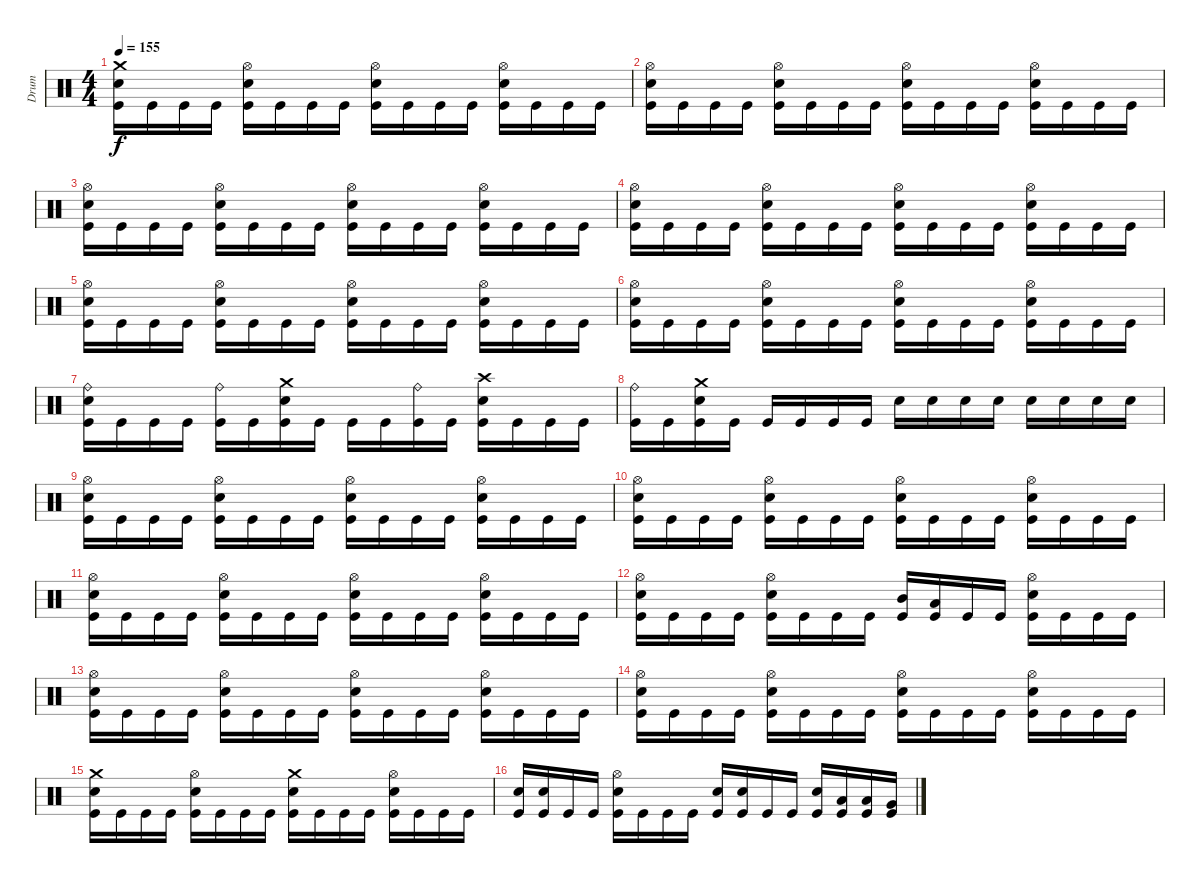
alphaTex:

\track ("Drum" "Drum") {instrument percussion}
\staff {score}
\articulation defaults
\ts (4 4)
\tempo 155
\clef neutral
\ks c
("Kick (hit)" "Electric Snare (hit)" "Crash medium (hit)").16{dy f} "Kick (hit)".16 "Kick (hit)".16 "Kick (hit)".16 ("Kick (hit)" "Electric Snare (hit)" "Hi-Hat (open)").16 "Kick (hit)".16 "Kick (hit)".16 "Kick (hit)".16 ("Kick (hit)" "Electric Snare (hit)" "Hi-Hat (open)").16 "Kick (hit)".16 "Kick (hit)".16 "Kick (hit)".16 ("Kick (hit)" "Electric Snare (hit)" "Hi-Hat (open)").16 "Kick (hit)".16 "Kick (hit)".16 "Kick (hit)".16 |
("Kick (hit)" "Electric Snare (hit)" "Hi-Hat (open)").16 "Kick (hit)".16 "Kick (hit)".16 "Kick (hit)".16 ("Kick (hit)" "Electric Snare (hit)" "Hi-Hat (open)").16 "Kick (hit)".16 "Kick (hit)".16 "Kick (hit)".16 ("Kick (hit)" "Electric Snare (hit)" "Hi-Hat (open)").16 "Kick (hit)".16 "Kick (hit)".16 "Kick (hit)".16 ("Kick (hit)" "Electric Snare (hit)" "Hi-Hat (open)").16 "Kick (hit)".16 "Kick (hit)".16 "Kick (hit)".16 |
("Kick (hit)" "Electric Snare (hit)" "Hi-Hat (open)").16 "Kick (hit)".16 "Kick (hit)".16 "Kick (hit)".16 ("Kick (hit)" "Electric Snare (hit)" "Hi-Hat (open)").16 "Kick (hit)".16 "Kick (hit)".16 "Kick (hit)".16 ("Kick (hit)" "Electric Snare (hit)" "Hi-Hat (open)").16 "Kick (hit)".16 "Kick (hit)".16 "Kick (hit)".16 ("Kick (hit)" "Electric Snare (hit)" "Hi-Hat (open)").16 "Kick (hit)".16 "Kick (hit)".16 "Kick (hit)".16 |
("Kick (hit)" "Electric Snare (hit)" "Hi-Hat (open)").16 "Kick (hit)".16 "Kick (hit)".16 "Kick (hit)".16 ("Kick (hit)" "Electric Snare (hit)" "Hi-Hat (open)").16 "Kick (hit)".16 "Kick (hit)".16 "Kick (hit)".16 ("Kick (hit)" "Electric Snare (hit)" "Hi-Hat (open)").16 "Kick (hit)".16 "Kick (hit)".16 "Kick (hit)".16 ("Kick (hit)" "Electric Snare (hit)" "Hi-Hat (open)").16 "Kick (hit)".16 "Kick (hit)".16 "Kick (hit)".16 |
("Kick (hit)" "Electric Snare (hit)" "Hi-Hat (open)").16 "Kick (hit)".16 "Kick (hit)".16 "Kick (hit)".16 ("Kick (hit)" "Electric Snare (hit)" "Hi-Hat (open)").16 "Kick (hit)".16 "Kick (hit)".16 "Kick (hit)".16 ("Kick (hit)" "Electric Snare (hit)" "Hi-Hat (open)").16 "Kick (hit)".16 "Kick (hit)".16 "Kick (hit)".16 ("Kick (hit)" "Electric Snare (hit)" "Hi-Hat (open)").16 "Kick (hit)".16 "Kick (hit)".16 "Kick (hit)".16 |
("Kick (hit)" "Electric Snare (hit)" "Hi-Hat (open)").16 "Kick (hit)".16 "Kick (hit)".16 "Kick (hit)".16 ("Kick (hit)" "Electric Snare (hit)" "Hi-Hat (open)").16 "Kick (hit)".16 "Kick (hit)".16 "Kick (hit)".16 ("Kick (hit)" "Electric Snare (hit)" "Hi-Hat (open)").16 "Kick (hit)".16 "Kick (hit)".16 "Kick (hit)".16 ("Kick (hit)" "Electric Snare (hit)" "Hi-Hat (open)").16 "Kick (hit)".16 "Kick (hit)".16 "Kick (hit)".16 |
("Kick (hit)" "Electric Snare (hit)" "Ride (bell)").16 "Kick (hit)".16 "Kick (hit)".16 "Kick (hit)".16 ("Kick (hit)" "Ride (bell)").16 "Kick (hit)".16 ("Kick (hit)" "Electric Snare (hit)" "Crash medium (hit)").16 "Kick (hit)".16 "Kick (hit)".16 "Kick (hit)".16 ("Kick (hit)" "Ride (bell)").16 "Kick (hit)".16 ("Kick (hit)" "Electric Snare (hit)" "Crash high (hit)").16 "Kick (hit)".16 "Kick (hit)".16 "Kick (hit)".16 |
("Kick (hit)" "Ride (bell)").16 "Kick (hit)".16 ("Kick (hit)" "Electric Snare (hit)" "Crash medium (hit)").16 "Kick (hit)".16 "Kick (hit)".16 "Kick (hit)".16 "Kick (hit)".16 "Kick (hit)".16 "Electric Snare (hit)".16 "Electric Snare (hit)".16 "Electric Snare (hit)".16 "Electric Snare (hit)".16 "Electric Snare (hit)".16 "Electric Snare (hit)".16 "Electric Snare (hit)".16 "Electric Snare (hit)".16 |
("Kick (hit)" "Electric Snare (hit)" "Hi-Hat (open)").16 "Kick (hit)".16 "Kick (hit)".16 "Kick (hit)".16 ("Kick (hit)" "Electric Snare (hit)" "Hi-Hat (open)").16 "Kick (hit)".16 "Kick (hit)".16 "Kick (hit)".16 ("Kick (hit)" "Electric Snare (hit)" "Hi-Hat (open)").16 "Kick (hit)".16 "Kick (hit)".16 "Kick (hit)".16 ("Kick (hit)" "Electric Snare (hit)" "Hi-Hat (open)").16 "Kick (hit)".16 "Kick (hit)".16 "Kick (hit)".16 |
("Kick (hit)" "Electric Snare (hit)" "Hi-Hat (open)").16 "Kick (hit)".16 "Kick (hit)".16 "Kick (hit)".16 ("Kick (hit)" "Electric Snare (hit)" "Hi-Hat (open)").16 "Kick (hit)".16 "Kick (hit)".16 "Kick (hit)".16 ("Kick (hit)" "Electric Snare (hit)" "Hi-Hat (open)").16 "Kick (hit)".16 "Kick (hit)".16 "Kick (hit)".16 ("Kick (hit)" "Electric Snare (hit)" "Hi-Hat (open)").16 "Kick (hit)".16 "Kick (hit)".16 "Kick (hit)".16 |
("Kick (hit)" "Electric Snare (hit)" "Hi-Hat (open)").16 "Kick (hit)".16 "Kick (hit)".16 "Kick (hit)".16 ("Kick (hit)" "Electric Snare (hit)" "Hi-Hat (open)").16 "Kick (hit)".16 "Kick (hit)".16 "Kick (hit)".16 ("Kick (hit)" "Electric Snare (hit)" "Hi-Hat (open)").16 "Kick (hit)".16 "Kick (hit)".16 "Kick (hit)".16 ("Kick (hit)" "Electric Snare (hit)" "Hi-Hat (open)").16 "Kick (hit)".16 "Kick (hit)".16 "Kick (hit)".16 |
("Kick (hit)" "Electric Snare (hit)" "Hi-Hat (open)").16 "Kick (hit)".16 "Kick (hit)".16 "Kick (hit)".16 ("Kick (hit)" "Electric Snare (hit)" "Hi-Hat (open)").16 "Kick (hit)".16 "Kick (hit)".16 "Kick (hit)".16 ("Kick (hit)" "Mid Tom (hit)").16 ("Kick (hit)" "Low Tom (hit)").16 "Kick (hit)".16 "Kick (hit)".16 ("Kick (hit)" "Electric Snare (hit)" "Hi-Hat (open)").16 "Kick (hit)".16 "Kick (hit)".16 "Kick (hit)".16 |
("Kick (hit)" "Electric Snare (hit)" "Hi-Hat (open)").16 "Kick (hit)".16 "Kick (hit)".16 "Kick (hit)".16 ("Kick (hit)" "Electric Snare (hit)" "Hi-Hat (open)").16 "Kick (hit)".16 "Kick (hit)".16 "Kick (hit)".16 ("Kick (hit)" "Electric Snare (hit)" "Hi-Hat (open)").16 "Kick (hit)".16 "Kick (hit)".16 "Kick (hit)".16 ("Kick (hit)" "Electric Snare (hit)" "Hi-Hat (open)").16 "Kick (hit)".16 "Kick (hit)".16 "Kick (hit)".16 |
("Kick (hit)" "Electric Snare (hit)" "Hi-Hat (open)").16 "Kick (hit)".16 "Kick (hit)".16 "Kick (hit)".16 ("Kick (hit)" "Electric Snare (hit)" "Hi-Hat (open)").16 "Kick (hit)".16 "Kick (hit)".16 "Kick (hit)".16 ("Kick (hit)" "Electric Snare (hit)" "Hi-Hat (open)").16 "Kick (hit)".16 "Kick (hit)".16 "Kick (hit)".16 ("Kick (hit)" "Electric Snare (hit)" "Hi-Hat (open)").16 "Kick (hit)".16 "Kick (hit)".16 "Kick (hit)".16 |
("Kick (hit)" "Electric Snare (hit)" "Crash medium (hit)").16 "Kick (hit)".16 "Kick (hit)".16 "Kick (hit)".16 ("Kick (hit)" "Electric Snare (hit)" "Hi-Hat (open)").16 "Kick (hit)".16 "Kick (hit)".16 "Kick (hit)".16 ("Kick (hit)" "Electric Snare (hit)" "Crash medium (hit)").16 "Kick (hit)".16 "Kick (hit)".16 "Kick (hit)".16 ("Kick (hit)" "Electric Snare (hit)" "Hi-Hat (open)").16 "Kick (hit)".16 "Kick (hit)".16 "Kick (hit)".16 |
("Kick (hit)" "Electric Snare (hit)").16 ("Kick (hit)" "Electric Snare (hit)").16 "Kick (hit)".16 "Kick (hit)".16 ("Kick (hit)" "Electric Snare (hit)" "Hi-Hat (open)").16 "Kick (hit)".16 "Kick (hit)".16 "Kick (hit)".16 ("Kick (hit)" "Electric Snare (hit)").16 ("Kick (hit)" "Electric Snare (hit)").16 "Kick (hit)".16 "Kick (hit)".16 ("Kick (hit)" "Electric Snare (hit)").16 ("Kick (hit)" "Low Tom (hit)").16 ("Kick (hit)" "Low Tom (hit)").16 ("Kick (hit)" "Very Low Tom (hit)").16
